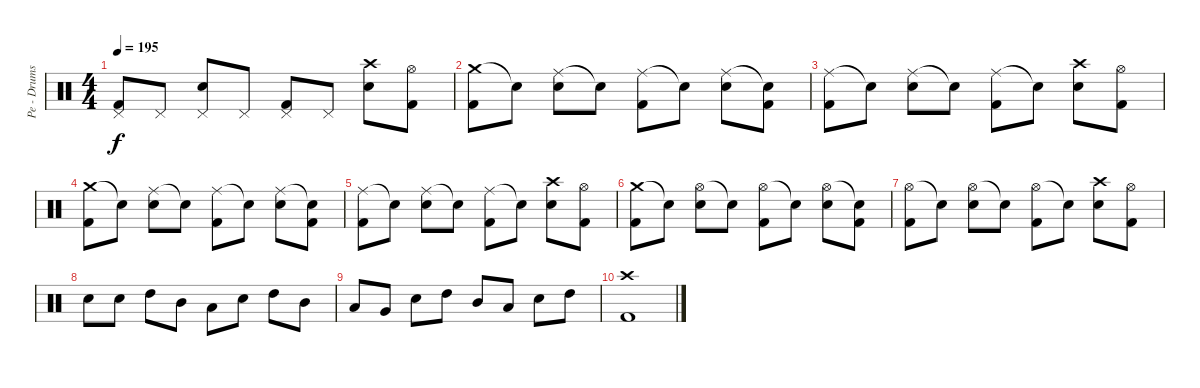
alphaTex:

\track ("Pe - Drums" "Pe - Drums") {instrument percussion}
\staff {score}
\articulation defaults
\ts (4 4)
\tempo 195
\clef neutral
\ks c
("Pedal Hi-Hat (hit)" "Kick (hit) 2").8{dy f} "Pedal Hi-Hat (hit)".8 ("Pedal Hi-Hat (hit)" "Electric Snare (hit)").8 "Pedal Hi-Hat (hit)".8 ("Pedal Hi-Hat (hit)" "Kick (hit) 2").8 "Pedal Hi-Hat (hit)".8 ("Crash high (hit)" "Electric Snare (hit)").8 ("Hi-Hat (open)" "Kick (hit) 2").8 |
("Crash medium (hit)" "Kick (hit) 2").8 "Snare (hit)"{t}.8 ("Ride (middle)" "Electric Snare (hit)").8 "Snare (hit)"{t}.8 ("Ride (middle)" "Kick (hit) 2").8 "Snare (hit)"{t}.8 ("Ride (middle)" "Electric Snare (hit)").8 ("Snare (hit)"{t} "Kick (hit) 2").8 |
("Ride (middle)" "Kick (hit) 2").8 "Snare (hit)"{t}.8 ("Ride (middle)" "Electric Snare (hit)").8 "Snare (hit)"{t}.8 ("Ride (middle)" "Kick (hit) 2").8 "Snare (hit)"{t}.8 ("Crash high (hit)" "Electric Snare (hit)").8 ("Hi-Hat (open)" "Kick (hit) 2").8 |
("Crash medium (hit)" "Kick (hit) 2").8 "Snare (hit)"{t}.8 ("Ride (middle)" "Electric Snare (hit)").8 "Snare (hit)"{t}.8 ("Ride (middle)" "Kick (hit) 2").8 "Snare (hit)"{t}.8 ("Ride (middle)" "Electric Snare (hit)").8 ("Snare (hit)"{t} "Kick (hit) 2").8 |
("Ride (middle)" "Kick (hit) 2").8 "Snare (hit)"{t}.8 ("Ride (middle)" "Electric Snare (hit)").8 "Snare (hit)"{t}.8 ("Ride (middle)" "Kick (hit) 2").8 "Snare (hit)"{t}.8 ("Crash high (hit)" "Electric Snare (hit)").8 ("Hi-Hat (open)" "Kick (hit) 2").8 |
("Crash medium (hit)" "Kick (hit) 2").8 "Snare (hit)"{t}.8 ("Hi-Hat (open)" "Electric Snare (hit)").8 "Snare (hit)"{t}.8 ("Hi-Hat (open)" "Kick (hit) 2").8 "Snare (hit)"{t}.8 ("Hi-Hat (open)" "Electric Snare (hit)").8 ("Snare (hit)"{t} "Kick (hit) 2").8 |
("Hi-Hat (open)" "Kick (hit) 2").8 "Snare (hit)"{t}.8 ("Hi-Hat (open)" "Electric Snare (hit)").8 "Snare (hit)"{t}.8 ("Hi-Hat (open)" "Kick (hit) 2").8 "Snare (hit)"{t}.8 ("Crash high (hit)" "Electric Snare (hit)").8 ("Hi-Hat (open)" "Kick (hit) 2").8 |
"Electric Snare (hit)".8 "Electric Snare (hit)".8 "High Tom (hit)".8 "Mid Tom (hit)".8 "Low Tom (hit)".8 "Electric Snare (hit)".8 "High Tom (hit)".8 "Mid Tom (hit)".8 |
"Low Tom (hit)".8 "Very Low Tom (hit)".8 "Electric Snare (hit)".8 "High Tom (hit)".8 "Mid Tom (hit)".8 "Low Tom (hit)".8 "Electric Snare (hit)".8 "High Tom (hit)".8 |
("Crash high (hit)" "Kick (hit) 2").1
